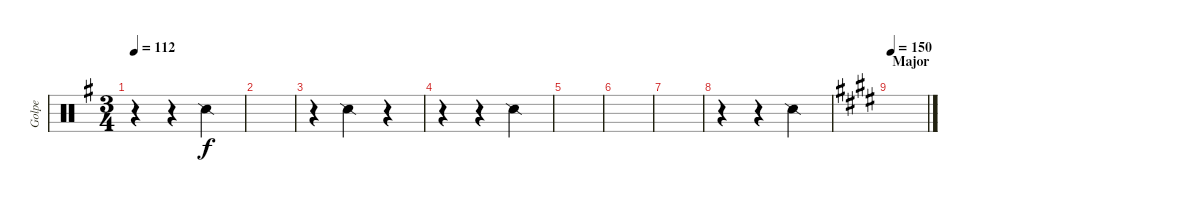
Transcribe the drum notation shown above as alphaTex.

\track ("Golpe" "Golpe") {instrument percussion}
\staff {score}
\articulation defaults
\ts (3 4)
\tempo 112
\clef neutral
\ks g
r.4{dy f} r.4 "Snare (side stick) 2".4 |
|
r.4 "Snare (side stick) 2".4 r.4 |
r.4 r.4 "Snare (side stick) 2".4 |
|
|
|
r.4 r.4 "Snare (side stick) 2".4 |
\section ("" "Major")
\tempo 150
\ks e
